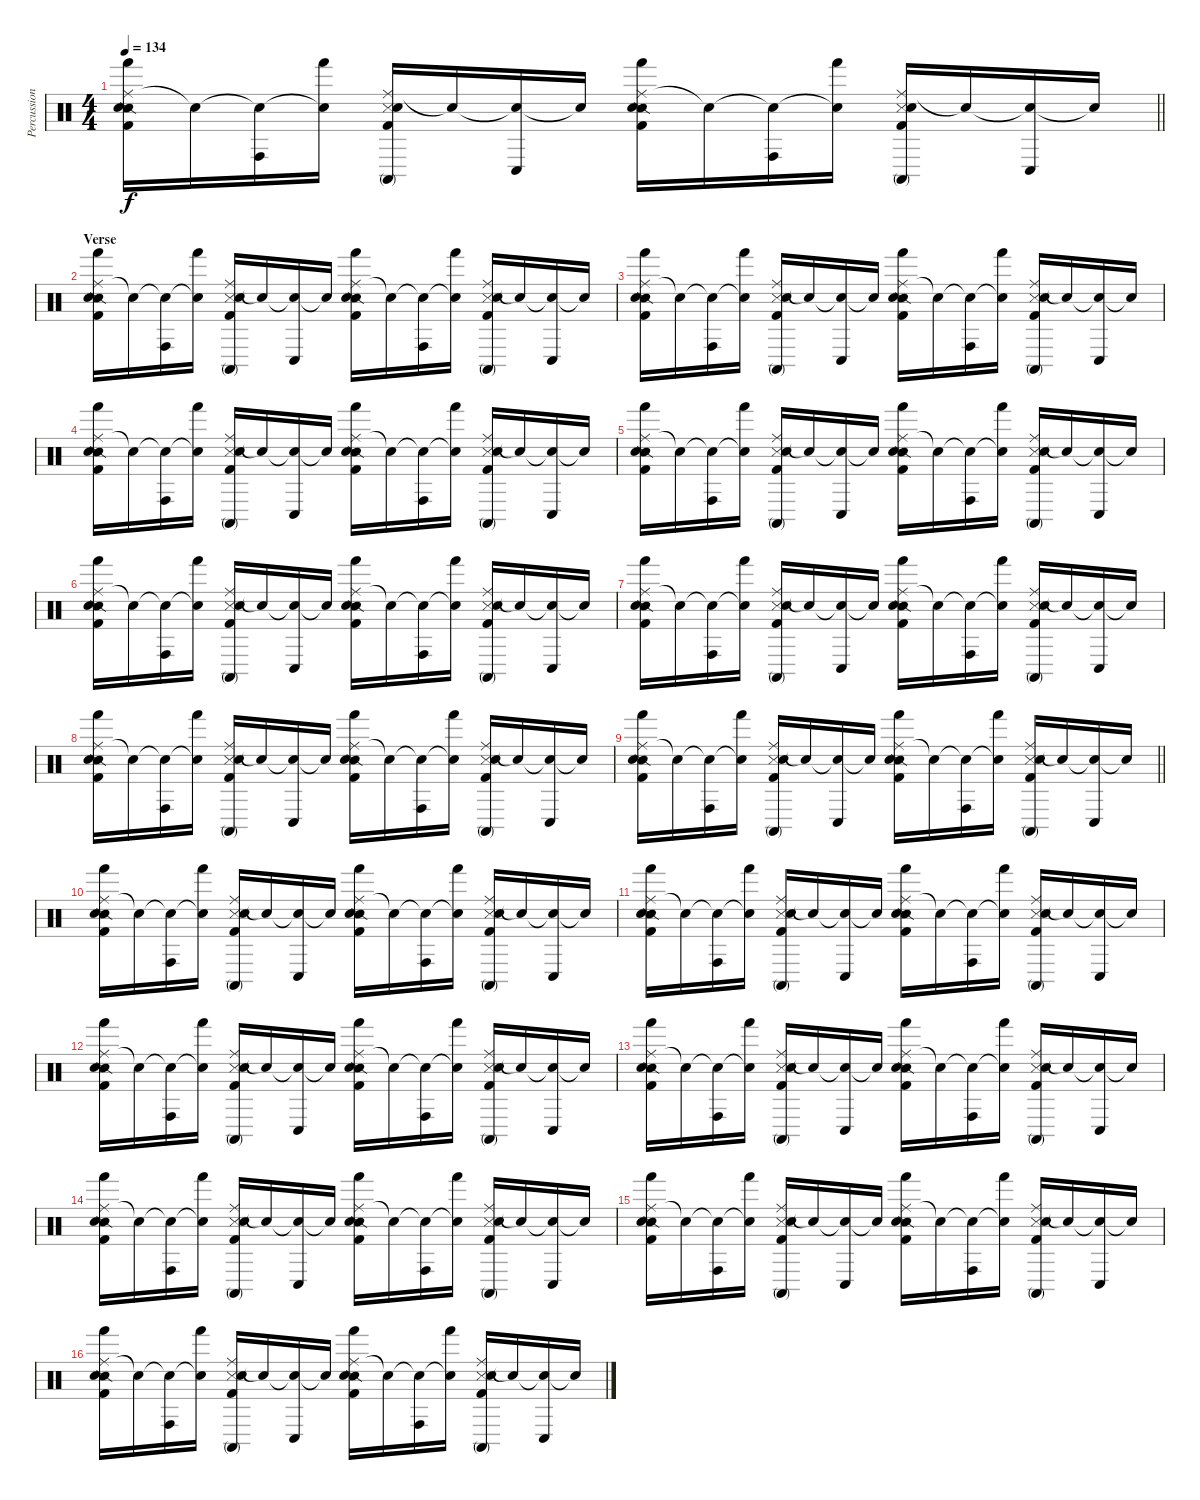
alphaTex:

\track ("Percussion" "Percussion") {instrument percussion}
\staff {score}
\articulation defaults
\ts (4 4)
\tempo 134
\clef neutral
\barLineRight lightlight
\ks c
("Ride (middle)" "Hand (hit)" "Snare (side stick) 2" "Electric Snare (hit)" "Kick (hit) 2").16{dy f} "Snare (hit)"{t}.16 ("Snare (hit)"{t} "Conga high (hit)").16 ("Snare (hit)"{t} "Hand (hit)").16 ("Ride (middle)" "Conga high (mute)" "Metronome (hit)" "Electric Snare (hit)" "Kick (hit) 2").16 "Snare (hit)"{t}.16 ("Snare (hit)"{t} "Conga low (hit)").16 "Snare (hit)"{t}.16 ("Ride (middle)" "Hand (hit)" "Snare (side stick) 2" "Electric Snare (hit)" "Kick (hit) 2").16 "Snare (hit)"{t}.16 ("Snare (hit)"{t} "Conga high (hit)").16 ("Snare (hit)"{t} "Hand (hit)").16 ("Ride (middle)" "Conga high (mute)" "Metronome (hit)" "Electric Snare (hit)" "Kick (hit) 2").16 "Snare (hit)"{t}.16 ("Snare (hit)"{t} "Conga low (hit)").16 "Snare (hit)"{t}.16 |
\section ("" "Verse")
("Ride (middle)" "Hand (hit)" "Snare (side stick) 2" "Electric Snare (hit)" "Kick (hit) 2").16 "Snare (hit)"{t}.16 ("Snare (hit)"{t} "Conga high (hit)").16 ("Snare (hit)"{t} "Hand (hit)").16 ("Ride (middle)" "Conga high (mute)" "Metronome (hit)" "Electric Snare (hit)" "Kick (hit) 2").16 "Snare (hit)"{t}.16 ("Snare (hit)"{t} "Conga low (hit)").16 "Snare (hit)"{t}.16 ("Ride (middle)" "Hand (hit)" "Snare (side stick) 2" "Electric Snare (hit)" "Kick (hit) 2").16 "Snare (hit)"{t}.16 ("Snare (hit)"{t} "Conga high (hit)").16 ("Snare (hit)"{t} "Hand (hit)").16 ("Ride (middle)" "Conga high (mute)" "Metronome (hit)" "Electric Snare (hit)" "Kick (hit) 2").16 "Snare (hit)"{t}.16 ("Snare (hit)"{t} "Conga low (hit)").16 "Snare (hit)"{t}.16 |
("Ride (middle)" "Hand (hit)" "Snare (side stick) 2" "Electric Snare (hit)" "Kick (hit) 2").16 "Snare (hit)"{t}.16 ("Snare (hit)"{t} "Conga high (hit)").16 ("Snare (hit)"{t} "Hand (hit)").16 ("Ride (middle)" "Conga high (mute)" "Metronome (hit)" "Electric Snare (hit)" "Kick (hit) 2").16 "Snare (hit)"{t}.16 ("Snare (hit)"{t} "Conga low (hit)").16 "Snare (hit)"{t}.16 ("Ride (middle)" "Hand (hit)" "Snare (side stick) 2" "Electric Snare (hit)" "Kick (hit) 2").16 "Snare (hit)"{t}.16 ("Snare (hit)"{t} "Conga high (hit)").16 ("Snare (hit)"{t} "Hand (hit)").16 ("Ride (middle)" "Conga high (mute)" "Metronome (hit)" "Electric Snare (hit)" "Kick (hit) 2").16 "Snare (hit)"{t}.16 ("Snare (hit)"{t} "Conga low (hit)").16 "Snare (hit)"{t}.16 |
("Ride (middle)" "Hand (hit)" "Snare (side stick) 2" "Electric Snare (hit)" "Kick (hit) 2").16 "Snare (hit)"{t}.16 ("Snare (hit)"{t} "Conga high (hit)").16 ("Snare (hit)"{t} "Hand (hit)").16 ("Ride (middle)" "Conga high (mute)" "Metronome (hit)" "Electric Snare (hit)" "Kick (hit) 2").16 "Snare (hit)"{t}.16 ("Snare (hit)"{t} "Conga low (hit)").16 "Snare (hit)"{t}.16 ("Ride (middle)" "Hand (hit)" "Snare (side stick) 2" "Electric Snare (hit)" "Kick (hit) 2").16 "Snare (hit)"{t}.16 ("Snare (hit)"{t} "Conga high (hit)").16 ("Snare (hit)"{t} "Hand (hit)").16 ("Ride (middle)" "Conga high (mute)" "Metronome (hit)" "Electric Snare (hit)" "Kick (hit) 2").16 "Snare (hit)"{t}.16 ("Snare (hit)"{t} "Conga low (hit)").16 "Snare (hit)"{t}.16 |
("Ride (middle)" "Hand (hit)" "Snare (side stick) 2" "Electric Snare (hit)" "Kick (hit) 2").16 "Snare (hit)"{t}.16 ("Snare (hit)"{t} "Conga high (hit)").16 ("Snare (hit)"{t} "Hand (hit)").16 ("Ride (middle)" "Conga high (mute)" "Metronome (hit)" "Electric Snare (hit)" "Kick (hit) 2").16 "Snare (hit)"{t}.16 ("Snare (hit)"{t} "Conga low (hit)").16 "Snare (hit)"{t}.16 ("Ride (middle)" "Hand (hit)" "Snare (side stick) 2" "Electric Snare (hit)" "Kick (hit) 2").16 "Snare (hit)"{t}.16 ("Snare (hit)"{t} "Conga high (hit)").16 ("Snare (hit)"{t} "Hand (hit)").16 ("Ride (middle)" "Conga high (mute)" "Metronome (hit)" "Electric Snare (hit)" "Kick (hit) 2").16 "Snare (hit)"{t}.16 ("Snare (hit)"{t} "Conga low (hit)").16 "Snare (hit)"{t}.16 |
("Ride (middle)" "Hand (hit)" "Snare (side stick) 2" "Electric Snare (hit)" "Kick (hit) 2").16 "Snare (hit)"{t}.16 ("Snare (hit)"{t} "Conga high (hit)").16 ("Snare (hit)"{t} "Hand (hit)").16 ("Ride (middle)" "Conga high (mute)" "Metronome (hit)" "Electric Snare (hit)" "Kick (hit) 2").16 "Snare (hit)"{t}.16 ("Snare (hit)"{t} "Conga low (hit)").16 "Snare (hit)"{t}.16 ("Ride (middle)" "Hand (hit)" "Snare (side stick) 2" "Electric Snare (hit)" "Kick (hit) 2").16 "Snare (hit)"{t}.16 ("Snare (hit)"{t} "Conga high (hit)").16 ("Snare (hit)"{t} "Hand (hit)").16 ("Ride (middle)" "Conga high (mute)" "Metronome (hit)" "Electric Snare (hit)" "Kick (hit) 2").16 "Snare (hit)"{t}.16 ("Snare (hit)"{t} "Conga low (hit)").16 "Snare (hit)"{t}.16 |
("Ride (middle)" "Hand (hit)" "Snare (side stick) 2" "Electric Snare (hit)" "Kick (hit) 2").16 "Snare (hit)"{t}.16 ("Snare (hit)"{t} "Conga high (hit)").16 ("Snare (hit)"{t} "Hand (hit)").16 ("Ride (middle)" "Conga high (mute)" "Metronome (hit)" "Electric Snare (hit)" "Kick (hit) 2").16 "Snare (hit)"{t}.16 ("Snare (hit)"{t} "Conga low (hit)").16 "Snare (hit)"{t}.16 ("Ride (middle)" "Hand (hit)" "Snare (side stick) 2" "Electric Snare (hit)" "Kick (hit) 2").16 "Snare (hit)"{t}.16 ("Snare (hit)"{t} "Conga high (hit)").16 ("Snare (hit)"{t} "Hand (hit)").16 ("Ride (middle)" "Conga high (mute)" "Metronome (hit)" "Electric Snare (hit)" "Kick (hit) 2").16 "Snare (hit)"{t}.16 ("Snare (hit)"{t} "Conga low (hit)").16 "Snare (hit)"{t}.16 |
("Ride (middle)" "Hand (hit)" "Snare (side stick) 2" "Electric Snare (hit)" "Kick (hit) 2").16 "Snare (hit)"{t}.16 ("Snare (hit)"{t} "Conga high (hit)").16 ("Snare (hit)"{t} "Hand (hit)").16 ("Ride (middle)" "Conga high (mute)" "Metronome (hit)" "Electric Snare (hit)" "Kick (hit) 2").16 "Snare (hit)"{t}.16 ("Snare (hit)"{t} "Conga low (hit)").16 "Snare (hit)"{t}.16 ("Ride (middle)" "Hand (hit)" "Snare (side stick) 2" "Electric Snare (hit)" "Kick (hit) 2").16 "Snare (hit)"{t}.16 ("Snare (hit)"{t} "Conga high (hit)").16 ("Snare (hit)"{t} "Hand (hit)").16 ("Ride (middle)" "Conga high (mute)" "Metronome (hit)" "Electric Snare (hit)" "Kick (hit) 2").16 "Snare (hit)"{t}.16 ("Snare (hit)"{t} "Conga low (hit)").16 "Snare (hit)"{t}.16 |
\barLineRight lightlight
("Ride (middle)" "Hand (hit)" "Snare (side stick) 2" "Electric Snare (hit)" "Kick (hit) 2").16 "Snare (hit)"{t}.16 ("Snare (hit)"{t} "Conga high (hit)").16 ("Snare (hit)"{t} "Hand (hit)").16 ("Ride (middle)" "Conga high (mute)" "Metronome (hit)" "Electric Snare (hit)" "Kick (hit) 2").16 "Snare (hit)"{t}.16 ("Snare (hit)"{t} "Conga low (hit)").16 "Snare (hit)"{t}.16 ("Ride (middle)" "Hand (hit)" "Snare (side stick) 2" "Electric Snare (hit)" "Kick (hit) 2").16 "Snare (hit)"{t}.16 ("Snare (hit)"{t} "Conga high (hit)").16 ("Snare (hit)"{t} "Hand (hit)").16 ("Ride (middle)" "Conga high (mute)" "Metronome (hit)" "Electric Snare (hit)" "Kick (hit) 2").16 "Snare (hit)"{t}.16 ("Snare (hit)"{t} "Conga low (hit)").16 "Snare (hit)"{t}.16 |
("Ride (middle)" "Hand (hit)" "Snare (side stick) 2" "Electric Snare (hit)" "Kick (hit) 2").16 "Snare (hit)"{t}.16 ("Snare (hit)"{t} "Conga high (hit)").16 ("Snare (hit)"{t} "Hand (hit)").16 ("Ride (middle)" "Conga high (mute)" "Metronome (hit)" "Electric Snare (hit)" "Kick (hit) 2").16 "Snare (hit)"{t}.16 ("Snare (hit)"{t} "Conga low (hit)").16 "Snare (hit)"{t}.16 ("Ride (middle)" "Hand (hit)" "Snare (side stick) 2" "Electric Snare (hit)" "Kick (hit) 2").16 "Snare (hit)"{t}.16 ("Snare (hit)"{t} "Conga high (hit)").16 ("Snare (hit)"{t} "Hand (hit)").16 ("Ride (middle)" "Conga high (mute)" "Metronome (hit)" "Electric Snare (hit)" "Kick (hit) 2").16 "Snare (hit)"{t}.16 ("Snare (hit)"{t} "Conga low (hit)").16 "Snare (hit)"{t}.16 |
("Ride (middle)" "Hand (hit)" "Snare (side stick) 2" "Electric Snare (hit)" "Kick (hit) 2").16 "Snare (hit)"{t}.16 ("Snare (hit)"{t} "Conga high (hit)").16 ("Snare (hit)"{t} "Hand (hit)").16 ("Ride (middle)" "Conga high (mute)" "Metronome (hit)" "Electric Snare (hit)" "Kick (hit) 2").16 "Snare (hit)"{t}.16 ("Snare (hit)"{t} "Conga low (hit)").16 "Snare (hit)"{t}.16 ("Ride (middle)" "Hand (hit)" "Snare (side stick) 2" "Electric Snare (hit)" "Kick (hit) 2").16 "Snare (hit)"{t}.16 ("Snare (hit)"{t} "Conga high (hit)").16 ("Snare (hit)"{t} "Hand (hit)").16 ("Ride (middle)" "Conga high (mute)" "Metronome (hit)" "Electric Snare (hit)" "Kick (hit) 2").16 "Snare (hit)"{t}.16 ("Snare (hit)"{t} "Conga low (hit)").16 "Snare (hit)"{t}.16 |
("Ride (middle)" "Hand (hit)" "Snare (side stick) 2" "Electric Snare (hit)" "Kick (hit) 2").16 "Snare (hit)"{t}.16 ("Snare (hit)"{t} "Conga high (hit)").16 ("Snare (hit)"{t} "Hand (hit)").16 ("Ride (middle)" "Conga high (mute)" "Metronome (hit)" "Electric Snare (hit)" "Kick (hit) 2").16 "Snare (hit)"{t}.16 ("Snare (hit)"{t} "Conga low (hit)").16 "Snare (hit)"{t}.16 ("Ride (middle)" "Hand (hit)" "Snare (side stick) 2" "Electric Snare (hit)" "Kick (hit) 2").16 "Snare (hit)"{t}.16 ("Snare (hit)"{t} "Conga high (hit)").16 ("Snare (hit)"{t} "Hand (hit)").16 ("Ride (middle)" "Conga high (mute)" "Metronome (hit)" "Electric Snare (hit)" "Kick (hit) 2").16 "Snare (hit)"{t}.16 ("Snare (hit)"{t} "Conga low (hit)").16 "Snare (hit)"{t}.16 |
("Ride (middle)" "Hand (hit)" "Snare (side stick) 2" "Electric Snare (hit)" "Kick (hit) 2").16 "Snare (hit)"{t}.16 ("Snare (hit)"{t} "Conga high (hit)").16 ("Snare (hit)"{t} "Hand (hit)").16 ("Ride (middle)" "Conga high (mute)" "Metronome (hit)" "Electric Snare (hit)" "Kick (hit) 2").16 "Snare (hit)"{t}.16 ("Snare (hit)"{t} "Conga low (hit)").16 "Snare (hit)"{t}.16 ("Ride (middle)" "Hand (hit)" "Snare (side stick) 2" "Electric Snare (hit)" "Kick (hit) 2").16 "Snare (hit)"{t}.16 ("Snare (hit)"{t} "Conga high (hit)").16 ("Snare (hit)"{t} "Hand (hit)").16 ("Ride (middle)" "Conga high (mute)" "Metronome (hit)" "Electric Snare (hit)" "Kick (hit) 2").16 "Snare (hit)"{t}.16 ("Snare (hit)"{t} "Conga low (hit)").16 "Snare (hit)"{t}.16 |
("Ride (middle)" "Hand (hit)" "Snare (side stick) 2" "Electric Snare (hit)" "Kick (hit) 2").16 "Snare (hit)"{t}.16 ("Snare (hit)"{t} "Conga high (hit)").16 ("Snare (hit)"{t} "Hand (hit)").16 ("Ride (middle)" "Conga high (mute)" "Metronome (hit)" "Electric Snare (hit)" "Kick (hit) 2").16 "Snare (hit)"{t}.16 ("Snare (hit)"{t} "Conga low (hit)").16 "Snare (hit)"{t}.16 ("Ride (middle)" "Hand (hit)" "Snare (side stick) 2" "Electric Snare (hit)" "Kick (hit) 2").16 "Snare (hit)"{t}.16 ("Snare (hit)"{t} "Conga high (hit)").16 ("Snare (hit)"{t} "Hand (hit)").16 ("Ride (middle)" "Conga high (mute)" "Metronome (hit)" "Electric Snare (hit)" "Kick (hit) 2").16 "Snare (hit)"{t}.16 ("Snare (hit)"{t} "Conga low (hit)").16 "Snare (hit)"{t}.16 |
("Ride (middle)" "Hand (hit)" "Snare (side stick) 2" "Electric Snare (hit)" "Kick (hit) 2").16 "Snare (hit)"{t}.16 ("Snare (hit)"{t} "Conga high (hit)").16 ("Snare (hit)"{t} "Hand (hit)").16 ("Ride (middle)" "Conga high (mute)" "Metronome (hit)" "Electric Snare (hit)" "Kick (hit) 2").16 "Snare (hit)"{t}.16 ("Snare (hit)"{t} "Conga low (hit)").16 "Snare (hit)"{t}.16 ("Ride (middle)" "Hand (hit)" "Snare (side stick) 2" "Electric Snare (hit)" "Kick (hit) 2").16 "Snare (hit)"{t}.16 ("Snare (hit)"{t} "Conga high (hit)").16 ("Snare (hit)"{t} "Hand (hit)").16 ("Ride (middle)" "Conga high (mute)" "Metronome (hit)" "Electric Snare (hit)" "Kick (hit) 2").16 "Snare (hit)"{t}.16 ("Snare (hit)"{t} "Conga low (hit)").16 "Snare (hit)"{t}.16 |
("Ride (middle)" "Hand (hit)" "Snare (side stick) 2" "Electric Snare (hit)" "Kick (hit) 2").16 "Snare (hit)"{t}.16 ("Snare (hit)"{t} "Conga high (hit)").16 ("Snare (hit)"{t} "Hand (hit)").16 ("Ride (middle)" "Conga high (mute)" "Metronome (hit)" "Electric Snare (hit)" "Kick (hit) 2").16 "Snare (hit)"{t}.16 ("Snare (hit)"{t} "Conga low (hit)").16 "Snare (hit)"{t}.16 ("Ride (middle)" "Hand (hit)" "Snare (side stick) 2" "Electric Snare (hit)" "Kick (hit) 2").16 "Snare (hit)"{t}.16 ("Snare (hit)"{t} "Conga high (hit)").16 ("Snare (hit)"{t} "Hand (hit)").16 ("Ride (middle)" "Conga high (mute)" "Metronome (hit)" "Electric Snare (hit)" "Kick (hit) 2").16 "Snare (hit)"{t}.16 ("Snare (hit)"{t} "Conga low (hit)").16 "Snare (hit)"{t}.16
